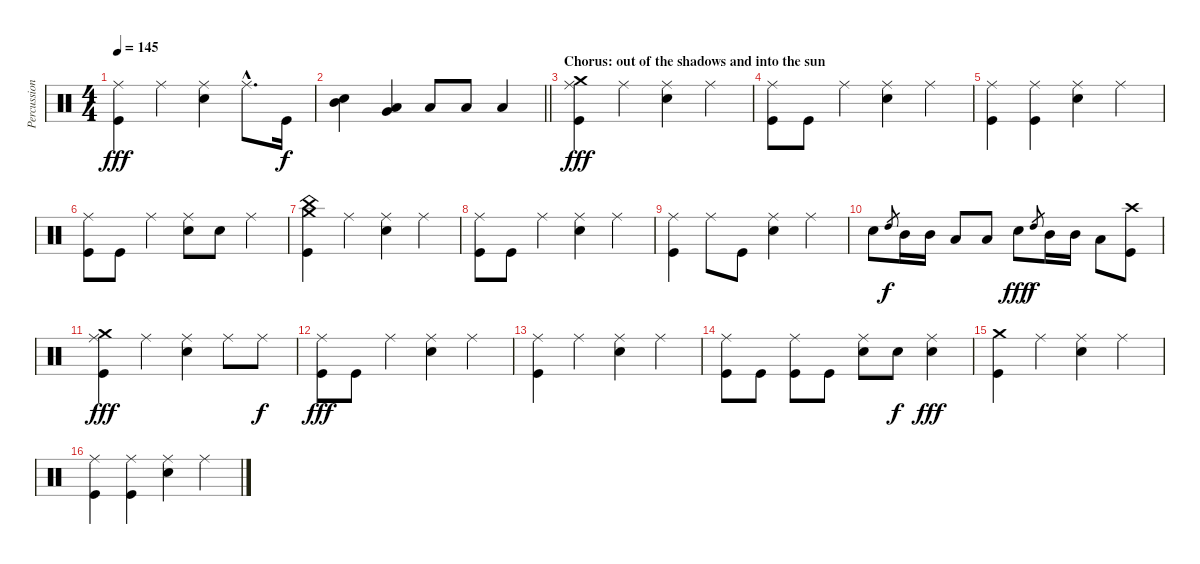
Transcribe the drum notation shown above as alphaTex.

\track ("Percussioni" "Percussion") {instrument percussion}
\staff {score}
\articulation defaults
\ts (4 4)
\tempo 145
\clef neutral
\ks c
("Ride (middle)" "Kick (hit)").4{dy fff} "Ride (middle)".4 ("Ride (middle)" "Snare (hit) 2").4 "Ride (middle)"{hac}.8{d} "Kick (hit)".16{dy f} |
\barLineRight lightlight
("Mid Tom (hit)" "Snare (hit) 2").4 ("Very Low Tom (hit)" "Low Tom (hit)").4 "Low Tom (hit)".8 "Low Tom (hit)".8 "Low Floor Tom (hit)".4 |
\section ("" "Chorus: out of the shadows and into the sun")
("Crash medium (hit)" "Ride (middle)" "Kick (hit)").4{dy fff} "Ride (middle)".4 ("Ride (middle)" "Snare (hit) 2").4 "Ride (middle)".4 |
("Ride (middle)" "Kick (hit)").8 "Kick (hit)".8 "Ride (middle)".4 ("Ride (middle)" "Snare (hit) 2").4 "Ride (middle)".4 |
("Ride (middle)" "Kick (hit)").4 ("Ride (middle)" "Kick (hit)").4 ("Ride (middle)" "Snare (hit) 2").4 "Ride (middle)".4 |
("Ride (middle)" "Kick (hit)").8 "Kick (hit)".8 "Ride (middle)".4 ("Ride (middle)" "Snare (hit) 2").8 "Snare (hit) 2".8 "Ride (middle)".4 |
("China (hit)" "Crash medium (hit)" "Kick (hit)").4 "Ride (middle)".4 ("Ride (middle)" "Snare (hit) 2").4 "Ride (middle)".4 |
("Ride (middle)" "Kick (hit)").8 "Kick (hit)".8 "Ride (middle)".4 ("Ride (middle)" "Snare (hit) 2").4 "Ride (middle)".4 |
("Ride (middle)" "Kick (hit)").4 "Ride (middle)".8 "Kick (hit)".8 ("Ride (middle)" "Snare (hit) 2").4 "Ride (middle)".4 |
"Snare (hit) 2".8 "High Tom (hit)".8{gr dy f} "Mid Tom (hit)".16 "Mid Tom (hit)".16 "Low Tom (hit)".8 "Low Tom (hit)".8 "Snare (hit) 2".8{dy fff} "High Tom (hit)".8{gr dy f} "Mid Tom (hit)".16 "Mid Tom (hit)".16 "Low Tom (hit)".8 ("Crash high (hit)" "Kick (hit)").8 |
("Crash medium (hit)" "Ride (middle)" "Kick (hit)").4{dy fff} "Ride (middle)".4 ("Ride (middle)" "Snare (hit) 2").4 "Ride (middle)".8 "Ride (middle)".8{dy f} |
("Ride (middle)" "Kick (hit)").8{dy fff} "Kick (hit)".8 "Ride (middle)".4 ("Ride (middle)" "Snare (hit) 2").4 "Ride (middle)".4 |
("Ride (middle)" "Kick (hit)").4 "Ride (middle)".4 ("Ride (middle)" "Snare (hit) 2").4 "Ride (middle)".4 |
("Ride (middle)" "Kick (hit)").8 "Kick (hit)".8 ("Ride (middle)" "Kick (hit)").8 "Kick (hit)".8 ("Ride (middle)" "Snare (hit) 2").8 "Snare (hit) 2".8{dy f} ("Ride (middle)" "Snare (hit) 2").4{dy fff} |
("Crash medium (hit)" "Kick (hit)").4 "Ride (middle)".4 ("Ride (middle)" "Snare (hit) 2").4 "Ride (middle)".4 |
("Ride (middle)" "Kick (hit)").4 ("Ride (middle)" "Kick (hit)").4 ("Ride (middle)" "Snare (hit) 2").4 "Ride (middle)".4
